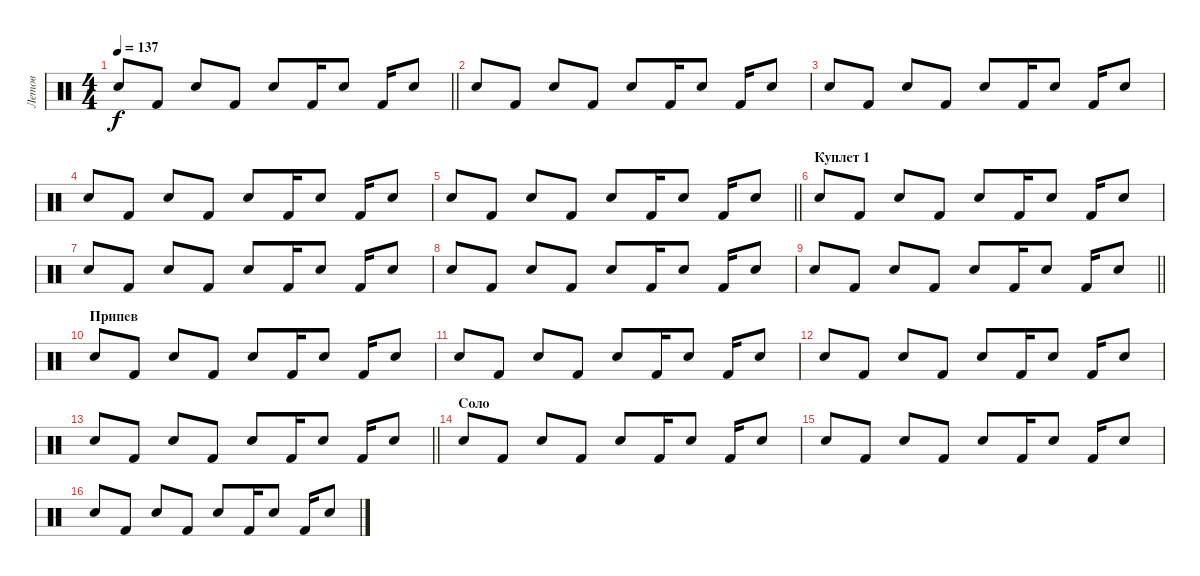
\track ("Летов" "Летов") {instrument percussion}
\staff {score}
\articulation defaults
\ts (4 4)
\tempo 137
\clef neutral
\barLineRight lightlight
\ks c "Electric Snare (hit)".8{dy f} "Kick (hit) 2".8 "Electric Snare (hit)".8 "Kick (hit) 2".8 "Electric Snare (hit)".8 "Kick (hit) 2".16 "Electric Snare (hit)".8 "Kick (hit) 2".16 "Electric Snare (hit)".8
|
"Electric Snare (hit)".8 "Kick (hit) 2".8 "Electric Snare (hit)".8 "Kick (hit) 2".8 "Electric Snare (hit)".8 "Kick (hit) 2".16 "Electric Snare (hit)".8 "Kick (hit) 2".16 "Electric Snare (hit)".8 |
"Electric Snare (hit)".8 "Kick (hit) 2".8 "Electric Snare (hit)".8 "Kick (hit) 2".8 "Electric Snare (hit)".8 "Kick (hit) 2".16 "Electric Snare (hit)".8 "Kick (hit) 2".16 "Electric Snare (hit)".8 |
"Electric Snare (hit)".8 "Kick (hit) 2".8 "Electric Snare (hit)".8 "Kick (hit) 2".8 "Electric Snare (hit)".8 "Kick (hit) 2".16 "Electric Snare (hit)".8 "Kick (hit) 2".16 "Electric Snare (hit)".8 |
\barLineRight lightlight "Electric Snare (hit)".8 "Kick (hit) 2".8 "Electric Snare (hit)".8 "Kick (hit) 2".8 "Electric Snare (hit)".8 "Kick (hit) 2".16 "Electric Snare (hit)".8 "Kick (hit) 2".16 "Electric Snare (hit)".8
|
\section ("" "Куплет 1")
"Electric Snare (hit)".8 "Kick (hit) 2".8 "Electric Snare (hit)".8 "Kick (hit) 2".8 "Electric Snare (hit)".8 "Kick (hit) 2".16 "Electric Snare (hit)".8 "Kick (hit) 2".16 "Electric Snare (hit)".8 |
"Electric Snare (hit)".8 "Kick (hit) 2".8 "Electric Snare (hit)".8 "Kick (hit) 2".8 "Electric Snare (hit)".8 "Kick (hit) 2".16 "Electric Snare (hit)".8 "Kick (hit) 2".16 "Electric Snare (hit)".8 |
"Electric Snare (hit)".8 "Kick (hit) 2".8 "Electric Snare (hit)".8 "Kick (hit) 2".8 "Electric Snare (hit)".8 "Kick (hit) 2".16 "Electric Snare (hit)".8 "Kick (hit) 2".16 "Electric Snare (hit)".8 |
\barLineRight lightlight "Electric Snare (hit)".8 "Kick (hit) 2".8 "Electric Snare (hit)".8 "Kick (hit) 2".8 "Electric Snare (hit)".8 "Kick (hit) 2".16 "Electric Snare (hit)".8 "Kick (hit) 2".16 "Electric Snare (hit)".8
|
\section ("" "Припев")
"Electric Snare (hit)".8 "Kick (hit) 2".8 "Electric Snare (hit)".8 "Kick (hit) 2".8 "Electric Snare (hit)".8 "Kick (hit) 2".16 "Electric Snare (hit)".8 "Kick (hit) 2".16 "Electric Snare (hit)".8 |
"Electric Snare (hit)".8 "Kick (hit) 2".8 "Electric Snare (hit)".8 "Kick (hit) 2".8 "Electric Snare (hit)".8 "Kick (hit) 2".16 "Electric Snare (hit)".8 "Kick (hit) 2".16 "Electric Snare (hit)".8 |
"Electric Snare (hit)".8 "Kick (hit) 2".8 "Electric Snare (hit)".8 "Kick (hit) 2".8 "Electric Snare (hit)".8 "Kick (hit) 2".16 "Electric Snare (hit)".8 "Kick (hit) 2".16 "Electric Snare (hit)".8 |
\barLineRight lightlight "Electric Snare (hit)".8 "Kick (hit) 2".8 "Electric Snare (hit)".8 "Kick (hit) 2".8 "Electric Snare (hit)".8 "Kick (hit) 2".16 "Electric Snare (hit)".8 "Kick (hit) 2".16 "Electric Snare (hit)".8
|
\section ("" "Соло")
"Electric Snare (hit)".8 "Kick (hit) 2".8 "Electric Snare (hit)".8 "Kick (hit) 2".8 "Electric Snare (hit)".8 "Kick (hit) 2".16 "Electric Snare (hit)".8 "Kick (hit) 2".16 "Electric Snare (hit)".8 |
"Electric Snare (hit)".8 "Kick (hit) 2".8 "Electric Snare (hit)".8 "Kick (hit) 2".8 "Electric Snare (hit)".8 "Kick (hit) 2".16 "Electric Snare (hit)".8 "Kick (hit) 2".16 "Electric Snare (hit)".8 |
"Electric Snare (hit)".8 "Kick (hit) 2".8 "Electric Snare (hit)".8 "Kick (hit) 2".8 "Electric Snare (hit)".8 "Kick (hit) 2".16 "Electric Snare (hit)".8 "Kick (hit) 2".16 "Electric Snare (hit)".8
